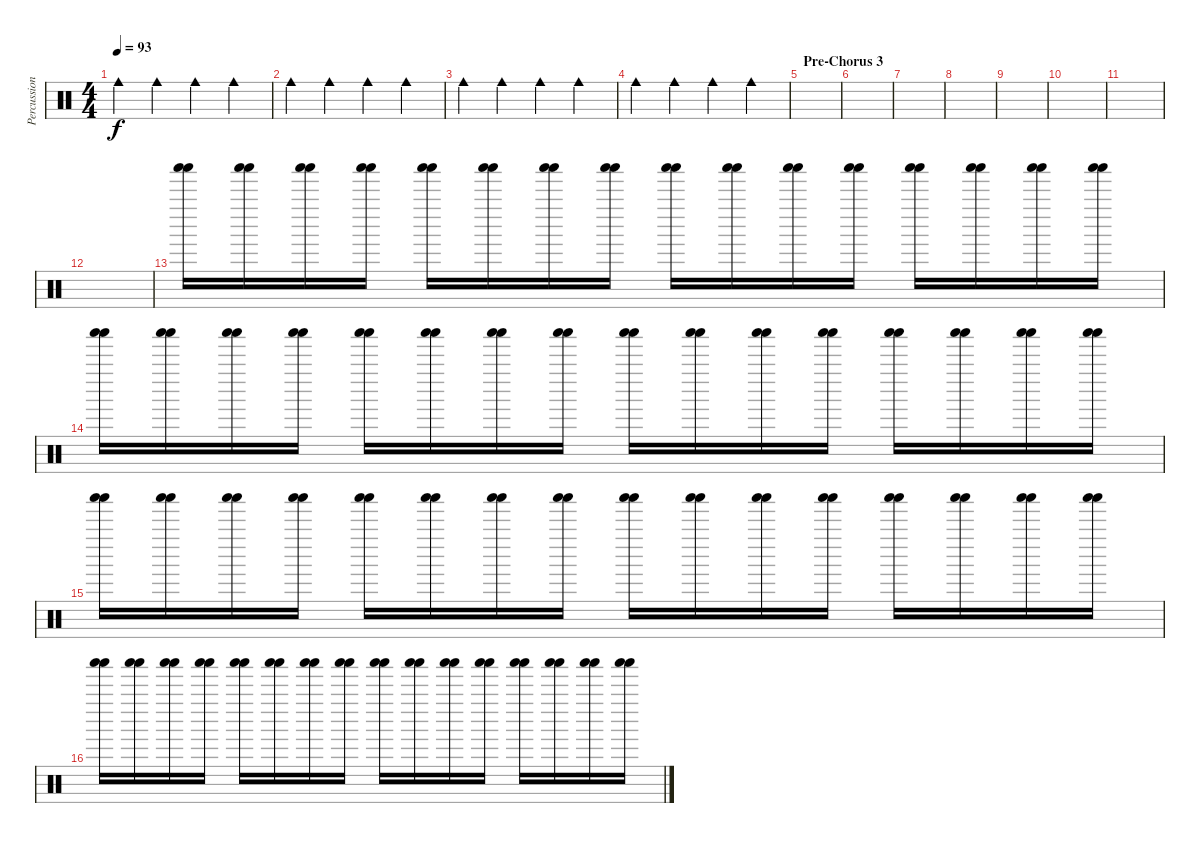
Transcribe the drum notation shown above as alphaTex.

\track ("Percussions" "Percussion") {instrument percussion}
\staff {score}
\articulation defaults
\ts (4 4)
\tempo 93
\clef neutral
\ks c "Cowbell medium (hit)".4{dy f} "Cowbell medium (hit)".4 "Cowbell medium (hit)".4 "Cowbell medium (hit)".4
|
"Cowbell medium (hit)".4 "Cowbell medium (hit)".4 "Cowbell medium (hit)".4 "Cowbell medium (hit)".4 |
"Cowbell medium (hit)".4 "Cowbell medium (hit)".4 "Cowbell medium (hit)".4 "Cowbell medium (hit)".4 |
"Cowbell medium (hit)".4 "Cowbell medium (hit)".4 "Cowbell medium (hit)".4 "Cowbell medium (hit)".4 |
\section ("" "Pre-Chorus 3")
|
|
|
|
|
|
|
|
("Shaker (hit)" "Shaker (hit)").16 ("Shaker (hit)" "Shaker (hit)").16 ("Shaker (hit)" "Shaker (hit)").16 ("Shaker (hit)" "Shaker (hit)").16 ("Shaker (hit)" "Shaker (hit)").16 ("Shaker (hit)" "Shaker (hit)").16 ("Shaker (hit)" "Shaker (hit)").16 ("Shaker (hit)" "Shaker (hit)").16 ("Shaker (hit)" "Shaker (hit)").16 ("Shaker (hit)" "Shaker (hit)").16 ("Shaker (hit)" "Shaker (hit)").16 ("Shaker (hit)" "Shaker (hit)").16 ("Shaker (hit)" "Shaker (hit)").16 ("Shaker (hit)" "Shaker (hit)").16 ("Shaker (hit)" "Shaker (hit)").16 ("Shaker (hit)" "Shaker (hit)").16 |
("Shaker (hit)" "Shaker (hit)").16 ("Shaker (hit)" "Shaker (hit)").16 ("Shaker (hit)" "Shaker (hit)").16 ("Shaker (hit)" "Shaker (hit)").16 ("Shaker (hit)" "Shaker (hit)").16 ("Shaker (hit)" "Shaker (hit)").16 ("Shaker (hit)" "Shaker (hit)").16 ("Shaker (hit)" "Shaker (hit)").16 ("Shaker (hit)" "Shaker (hit)").16 ("Shaker (hit)" "Shaker (hit)").16 ("Shaker (hit)" "Shaker (hit)").16 ("Shaker (hit)" "Shaker (hit)").16 ("Shaker (hit)" "Shaker (hit)").16 ("Shaker (hit)" "Shaker (hit)").16 ("Shaker (hit)" "Shaker (hit)").16 ("Shaker (hit)" "Shaker (hit)").16 |
("Shaker (hit)" "Shaker (hit)").16 ("Shaker (hit)" "Shaker (hit)").16 ("Shaker (hit)" "Shaker (hit)").16 ("Shaker (hit)" "Shaker (hit)").16 ("Shaker (hit)" "Shaker (hit)").16 ("Shaker (hit)" "Shaker (hit)").16 ("Shaker (hit)" "Shaker (hit)").16 ("Shaker (hit)" "Shaker (hit)").16 ("Shaker (hit)" "Shaker (hit)").16 ("Shaker (hit)" "Shaker (hit)").16 ("Shaker (hit)" "Shaker (hit)").16 ("Shaker (hit)" "Shaker (hit)").16 ("Shaker (hit)" "Shaker (hit)").16 ("Shaker (hit)" "Shaker (hit)").16 ("Shaker (hit)" "Shaker (hit)").16 ("Shaker (hit)" "Shaker (hit)").16 |
("Shaker (hit)" "Shaker (hit)").16 ("Shaker (hit)" "Shaker (hit)").16 ("Shaker (hit)" "Shaker (hit)").16 ("Shaker (hit)" "Shaker (hit)").16 ("Shaker (hit)" "Shaker (hit)").16 ("Shaker (hit)" "Shaker (hit)").16 ("Shaker (hit)" "Shaker (hit)").16 ("Shaker (hit)" "Shaker (hit)").16 ("Shaker (hit)" "Shaker (hit)").16 ("Shaker (hit)" "Shaker (hit)").16 ("Shaker (hit)" "Shaker (hit)").16 ("Shaker (hit)" "Shaker (hit)").16 ("Shaker (hit)" "Shaker (hit)").16 ("Shaker (hit)" "Shaker (hit)").16 ("Shaker (hit)" "Shaker (hit)").16 ("Shaker (hit)" "Shaker (hit)").16
